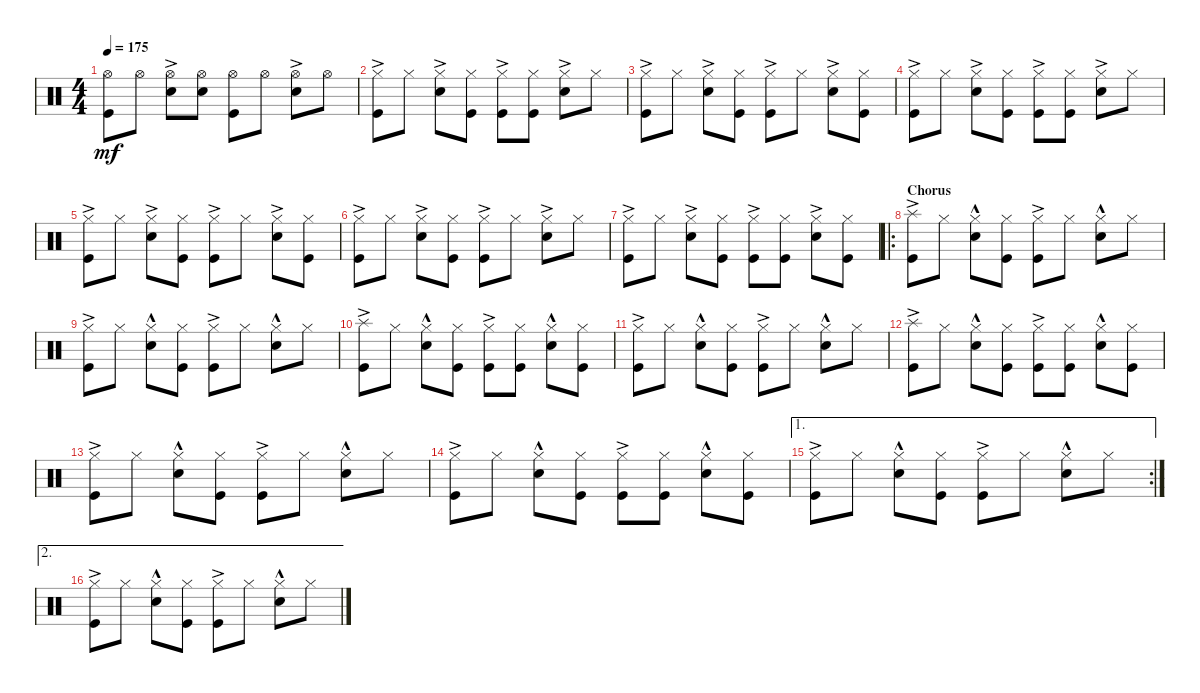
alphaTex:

\defaultSystemsLayout 4
\bracketExtendMode nobrackets
\singleTrackTrackNamePolicy hidden
\multiTrackTrackNamePolicy hidden
\firstSystemTrackNameOrientation horizontal
\otherSystemsTrackNameOrientation horizontal
\track ("Drumkit" "Drums") {instrument percussion}
\staff {score}
\articulation defaults
\ts (4 4)
\tempo 175
\clef neutral
\ks c
("Hi-Hat (open)" "Kick (hit)").8{dy mf} "Hi-Hat (open)".8 ("Hi-Hat (open)" "Snare (hit) 2"{ac}).8 ("Hi-Hat (open)" "Snare (hit) 2").8 ("Hi-Hat (open)" "Kick (hit)").8 "Hi-Hat (open)".8 ("Hi-Hat (open)" "Snare (hit) 2"{ac}).8 "Hi-Hat (open)".8 |
("Kick (hit)"{ac} "Hi-Hat (closed)").8 "Hi-Hat (closed)".8 ("Hi-Hat (closed)" "Snare (hit) 2"{ac}).8 ("Hi-Hat (closed)" "Kick (hit)").8 ("Kick (hit)"{ac} "Hi-Hat (closed)").8 ("Hi-Hat (closed)" "Kick (hit)").8 ("Hi-Hat (closed)" "Snare (hit) 2"{ac}).8 "Hi-Hat (closed)".8 |
("Kick (hit)"{ac} "Hi-Hat (closed)").8 "Hi-Hat (closed)".8 ("Hi-Hat (closed)" "Snare (hit) 2"{ac}).8 ("Hi-Hat (closed)" "Kick (hit)").8 ("Kick (hit)"{ac} "Hi-Hat (closed)").8 "Hi-Hat (closed)".8 ("Hi-Hat (closed)" "Snare (hit) 2"{ac}).8 ("Hi-Hat (closed)" "Kick (hit)").8 |
("Kick (hit)"{ac} "Hi-Hat (closed)").8 "Hi-Hat (closed)".8 ("Hi-Hat (closed)" "Snare (hit) 2"{ac}).8 ("Hi-Hat (closed)" "Kick (hit)").8 ("Kick (hit)"{ac} "Hi-Hat (closed)").8 ("Hi-Hat (closed)" "Kick (hit)").8 ("Hi-Hat (closed)" "Snare (hit) 2"{ac}).8 "Hi-Hat (closed)".8 |
("Kick (hit)"{ac} "Hi-Hat (closed)").8 "Hi-Hat (closed)".8 ("Hi-Hat (closed)" "Snare (hit) 2"{ac}).8 ("Hi-Hat (closed)" "Kick (hit)").8 ("Kick (hit)"{ac} "Hi-Hat (closed)").8 "Hi-Hat (closed)".8 ("Hi-Hat (closed)" "Snare (hit) 2"{ac}).8 ("Hi-Hat (closed)" "Kick (hit)").8 |
("Kick (hit)"{ac} "Hi-Hat (closed)").8 "Hi-Hat (closed)".8 ("Hi-Hat (closed)" "Snare (hit) 2"{ac}).8 ("Hi-Hat (closed)" "Kick (hit)").8 ("Kick (hit)"{ac} "Hi-Hat (closed)").8 "Hi-Hat (closed)".8 ("Hi-Hat (closed)" "Snare (hit) 2"{ac}).8 "Hi-Hat (closed)".8 |
("Kick (hit)"{ac} "Hi-Hat (closed)").8 "Hi-Hat (closed)".8 ("Hi-Hat (closed)" "Snare (hit) 2"{ac}).8 ("Hi-Hat (closed)" "Kick (hit)").8 ("Kick (hit)"{ac} "Hi-Hat (closed)").8 ("Hi-Hat (closed)" "Kick (hit)").8 ("Hi-Hat (closed)" "Snare (hit) 2"{ac}).8 ("Hi-Hat (closed)" "Kick (hit)").8 |
\ro
\section ("" "Chorus")
("Kick (hit)"{ac} "Splash (hit)").8 "Hi-Hat (closed)".8 ("Hi-Hat (closed)" "Snare (hit) 2"{hac}).8 ("Hi-Hat (closed)" "Kick (hit)").8 ("Kick (hit)"{ac} "Hi-Hat (closed)").8 "Hi-Hat (closed)".8 ("Hi-Hat (closed)" "Snare (hit) 2"{hac}).8 "Hi-Hat (closed)".8 |
("Kick (hit)"{ac} "Hi-Hat (closed)").8 "Hi-Hat (closed)".8 ("Hi-Hat (closed)" "Snare (hit) 2"{hac}).8 ("Hi-Hat (closed)" "Kick (hit)").8 ("Kick (hit)"{ac} "Hi-Hat (closed)").8 "Hi-Hat (closed)".8 ("Hi-Hat (closed)" "Snare (hit) 2"{hac}).8 "Hi-Hat (closed)".8 |
("Kick (hit)"{ac} "Splash (hit)").8 "Hi-Hat (closed)".8 ("Hi-Hat (closed)" "Snare (hit) 2"{hac}).8 ("Hi-Hat (closed)" "Kick (hit)").8 ("Kick (hit)"{ac} "Hi-Hat (closed)").8 ("Hi-Hat (closed)" "Kick (hit)").8 ("Hi-Hat (closed)" "Snare (hit) 2"{hac}).8 ("Hi-Hat (closed)" "Kick (hit)").8 |
("Kick (hit)"{ac} "Hi-Hat (closed)").8 "Hi-Hat (closed)".8 ("Hi-Hat (closed)" "Snare (hit) 2"{hac}).8 ("Hi-Hat (closed)" "Kick (hit)").8 ("Kick (hit)"{ac} "Hi-Hat (closed)").8 "Hi-Hat (closed)".8 ("Hi-Hat (closed)" "Snare (hit) 2"{hac}).8 "Hi-Hat (closed)".8 |
("Kick (hit)"{ac} "Splash (hit)").8 "Hi-Hat (closed)".8 ("Hi-Hat (closed)" "Snare (hit) 2"{hac}).8 ("Hi-Hat (closed)" "Kick (hit)").8 ("Kick (hit)"{ac} "Hi-Hat (closed)").8 ("Hi-Hat (closed)" "Kick (hit)").8 ("Hi-Hat (closed)" "Snare (hit) 2"{hac}).8 ("Hi-Hat (closed)" "Kick (hit)").8 |
("Kick (hit)"{ac} "Hi-Hat (closed)").8 "Hi-Hat (closed)".8 ("Hi-Hat (closed)" "Snare (hit) 2"{hac}).8 ("Hi-Hat (closed)" "Kick (hit)").8 ("Kick (hit)"{ac} "Hi-Hat (closed)").8 "Hi-Hat (closed)".8 ("Hi-Hat (closed)" "Snare (hit) 2"{hac}).8 "Hi-Hat (closed)".8 |
("Kick (hit)"{ac} "Hi-Hat (closed)").8 "Hi-Hat (closed)".8 ("Hi-Hat (closed)" "Snare (hit) 2"{hac}).8 ("Hi-Hat (closed)" "Kick (hit)").8 ("Kick (hit)"{ac} "Hi-Hat (closed)").8 ("Hi-Hat (closed)" "Kick (hit)").8 ("Hi-Hat (closed)" "Snare (hit) 2"{hac}).8 ("Hi-Hat (closed)" "Kick (hit)").8 |
\ae 1
\rc 2
("Kick (hit)"{ac} "Hi-Hat (closed)").8 "Hi-Hat (closed)".8 ("Hi-Hat (closed)" "Snare (hit) 2"{hac}).8 ("Hi-Hat (closed)" "Kick (hit)").8 ("Kick (hit)"{ac} "Hi-Hat (closed)").8 "Hi-Hat (closed)".8 ("Hi-Hat (closed)" "Snare (hit) 2"{hac}).8 "Hi-Hat (closed)".8 |
\ae 2
("Kick (hit)"{ac} "Hi-Hat (closed)").8 "Hi-Hat (closed)".8 ("Hi-Hat (closed)" "Snare (hit) 2"{hac}).8 ("Hi-Hat (closed)" "Kick (hit)").8 ("Kick (hit)"{ac} "Hi-Hat (closed)").8 "Hi-Hat (closed)".8 ("Hi-Hat (closed)" "Snare (hit) 2"{hac}).8 "Hi-Hat (closed)".8
